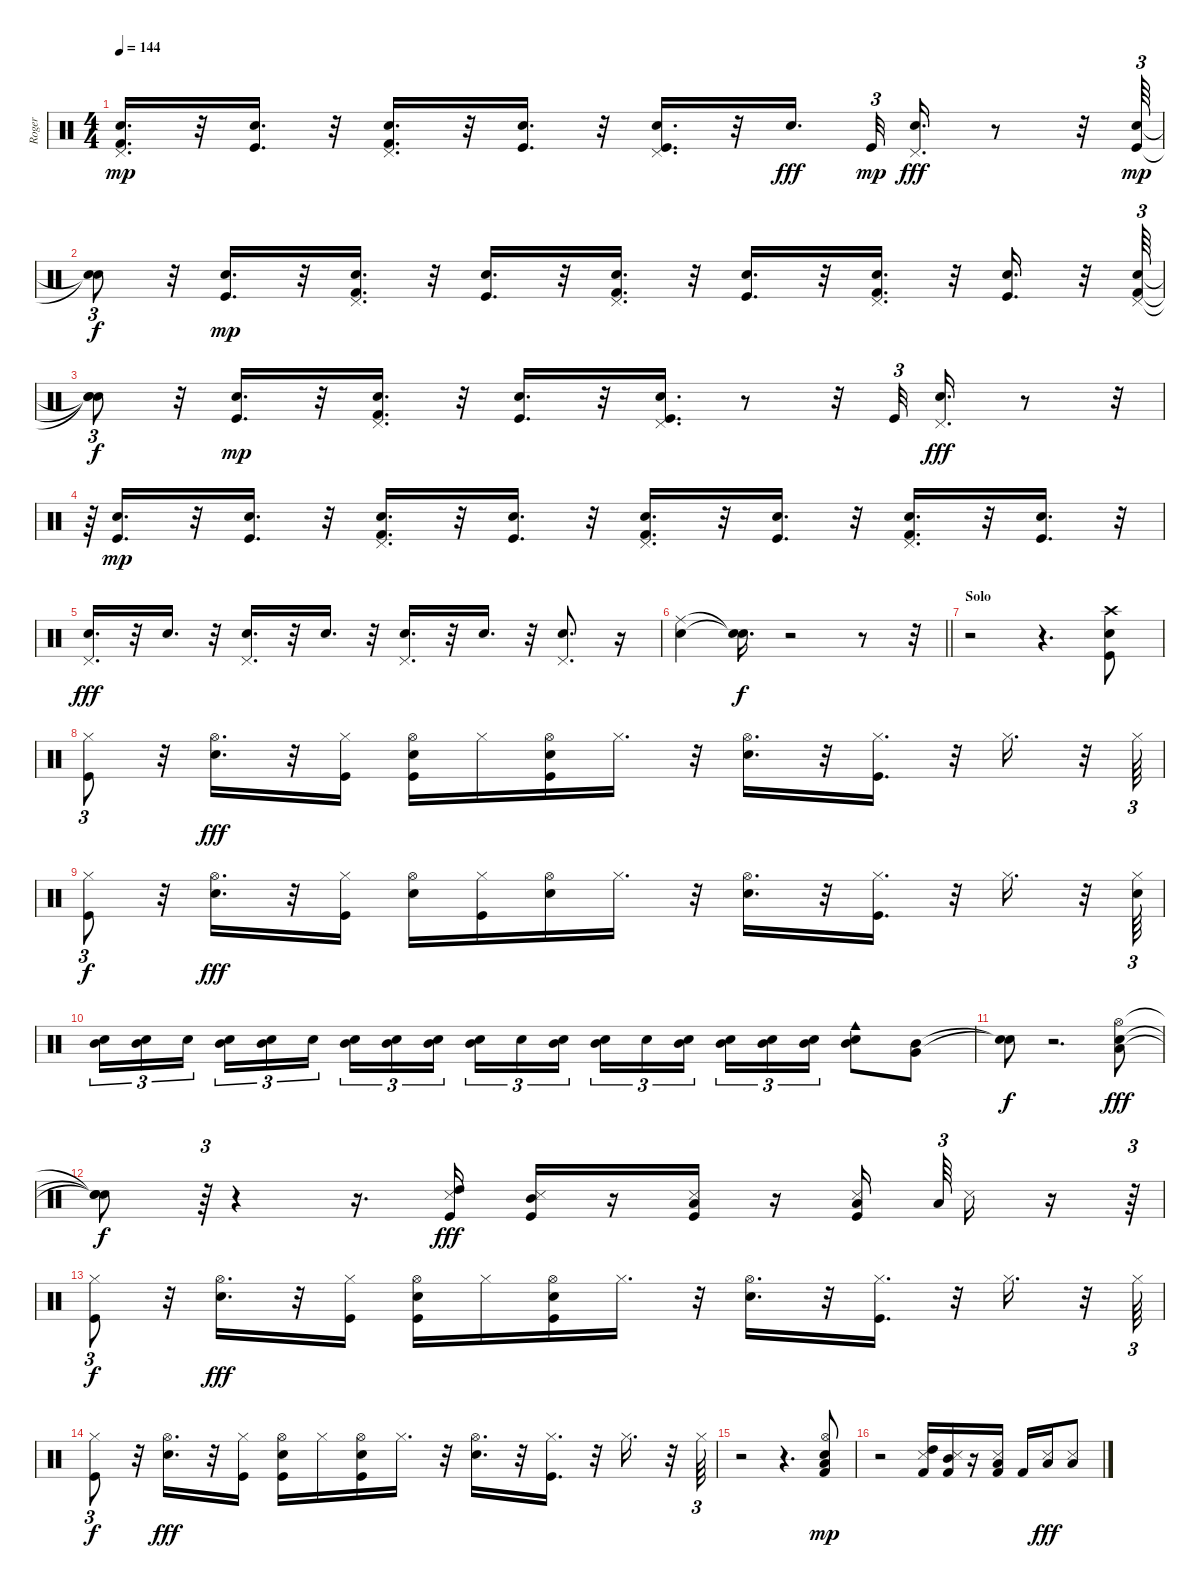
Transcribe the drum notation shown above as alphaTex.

\track ("Roger" "Roger") {instrument percussion}
\staff {score}
\articulation defaults
\ts (4 4)
\tempo 144
\clef neutral
\ks c
("Snare (hit) 2" "Pedal Hi-Hat (hit)" "Kick (hit) 2").16{d dy mp} r.32 ("Electric Snare (hit)" "Kick (hit)").16{d} r.32 ("Snare (hit) 2" "Pedal Hi-Hat (hit)" "Kick (hit) 2").16{d} r.32 ("Electric Snare (hit)" "Kick (hit)").16{d} r.32 ("Snare (hit) 2" "Pedal Hi-Hat (hit)" "Kick (hit)").16{d} r.32 "Electric Snare (hit)".16{d dy fff beam splitsecondary} "Kick (hit)".32{tu (3 2) dy mp} ("Snare (hit) 2" "Pedal Hi-Hat (hit)").16{d dy fff} r.8 r.32 ("Electric Snare (hit)" "Kick (hit)").64{tu (3 2) dy mp} |
("Snare (hit)"{t} "Snare (hit)"{t}).8{tu (3 2) dy f} r.32 ("Electric Snare (hit)" "Kick (hit)").16{d dy mp} r.32 ("Snare (hit) 2" "Pedal Hi-Hat (hit)" "Kick (hit) 2").16{d} r.32 ("Electric Snare (hit)" "Kick (hit)").16{d} r.32 ("Snare (hit) 2" "Pedal Hi-Hat (hit)" "Kick (hit) 2").16{d} r.32 ("Electric Snare (hit)" "Kick (hit)").16{d} r.32 ("Snare (hit) 2" "Pedal Hi-Hat (hit)" "Kick (hit) 2").16{d} r.32 ("Electric Snare (hit)" "Kick (hit)").16{d} r.32 ("Snare (hit) 2" "Pedal Hi-Hat (hit)" "Kick (hit) 2").64{tu (3 2)} |
("Snare (hit)"{t} "Snare (hit)"{t} "Snare (hit)"{t}).8{tu (3 2) dy f} r.32 ("Electric Snare (hit)" "Kick (hit)").16{d dy mp} r.32 ("Snare (hit) 2" "Pedal Hi-Hat (hit)" "Kick (hit) 2").16{d} r.32 ("Electric Snare (hit)" "Kick (hit)").16{d} r.32 ("Snare (hit) 2" "Pedal Hi-Hat (hit)" "Kick (hit)").16{d} r.8 r.32 "Kick (hit)".32{tu (3 2)} ("Snare (hit) 2" "Pedal Hi-Hat (hit)").16{d dy fff} r.8 r.32{tu (3 2)} |
r.64{tu (3 2)} ("Electric Snare (hit)" "Kick (hit)").16{d dy mp} r.32 ("Electric Snare (hit)" "Kick (hit)").16{d} r.32 ("Snare (hit) 2" "Pedal Hi-Hat (hit)" "Kick (hit) 2").16{d} r.32 ("Electric Snare (hit)" "Kick (hit)").16{d} r.32 ("Snare (hit) 2" "Pedal Hi-Hat (hit)" "Kick (hit) 2").16{d} r.32 ("Electric Snare (hit)" "Kick (hit)").16{d} r.32 ("Snare (hit) 2" "Pedal Hi-Hat (hit)" "Kick (hit) 2").16{d} r.32 ("Electric Snare (hit)" "Kick (hit)").16{d} r.32{tu (3 2)} |
("Snare (hit) 2" "Pedal Hi-Hat (hit)").16{d dy fff} r.32 "Electric Snare (hit)".16{d} r.32 ("Snare (hit) 2" "Pedal Hi-Hat (hit)").16{d} r.32 "Electric Snare (hit)".16{d} r.32 ("Pedal Hi-Hat (hit)" "Snare (hit) 2").16{d} r.32 "Electric Snare (hit)".16{d} r.32 ("Snare (hit) 2" "Pedal Hi-Hat (hit)").8{d} r.16 |
\barLineRight lightlight
("Ride (middle)" "Snare (hit) 2").4 ("Snare (hit)"{t} "Snare (hit)"{t}).16{d dy f} r.2 r.8 r.32 |
\section ("" "Solo")
r.2 r.4{d} ("Crash high (hit)" "Electric Snare (hit)" "Kick (hit)").8 |
("Hi-Hat (closed)" "Kick (hit)").8{tu (3 2)} r.32 ("Snare (hit) 2" "Hi-Hat (open)").16{d dy fff} r.32 ("Hi-Hat (closed)" "Kick (hit)").16 ("Snare (hit) 2" "Hi-Hat (open)" "Kick (hit)").16 "Hi-Hat (closed)".16 ("Snare (hit) 2" "Hi-Hat (open)" "Kick (hit)").16 "Hi-Hat (closed)".16{d} r.32 ("Snare (hit) 2" "Hi-Hat (open)").16{d} r.32 ("Hi-Hat (closed)" "Kick (hit)").16{d} r.32 "Hi-Hat (closed)".16{d} r.32 "Hi-Hat (closed)".64{tu (3 2)} |
("Hi-Hat (closed)" "Kick (hit)").8{tu (3 2) dy f} r.32 ("Snare (hit) 2" "Hi-Hat (open)").16{d dy fff} r.32 ("Hi-Hat (closed)" "Kick (hit)").16 ("Snare (hit) 2" "Hi-Hat (open)").16 ("Hi-Hat (closed)" "Kick (hit)").16 ("Snare (hit) 2" "Hi-Hat (open)").16 "Hi-Hat (closed)".16{d} r.32 ("Snare (hit) 2" "Hi-Hat (open)").16{d} r.32 ("Hi-Hat (closed)" "Kick (hit)").16{d} r.32 "Hi-Hat (closed)".16{d} r.32 ("Hi-Hat (closed)" "Snare (hit) 2").64{tu (3 2)} |
("Mid Tom (hit)" "Electric Snare (hit)").16{tu (3 2)} ("Mid Tom (hit)" "Electric Snare (hit)").16{tu (3 2)} "Electric Snare (hit)".16{tu (3 2) beam splitsecondary} ("Mid Tom (hit)" "Electric Snare (hit)").16{tu (3 2)} ("Mid Tom (hit)" "Electric Snare (hit)").16{tu (3 2)} "Electric Snare (hit)".16{tu (3 2)} ("Mid Tom (hit)" "Electric Snare (hit)").16{tu (3 2)} ("Mid Tom (hit)" "Electric Snare (hit)").16{tu (3 2)} ("Mid Tom (hit)" "Electric Snare (hit)").16{tu (3 2) beam splitsecondary} ("Electric Snare (hit)" "Mid Tom (hit)").16{tu (3 2)} "Electric Snare (hit)".16{tu (3 2)} ("Electric Snare (hit)" "Mid Tom (hit)").16{tu (3 2)} ("Electric Snare (hit)" "Mid Tom (hit)").16{tu (3 2)} "Electric Snare (hit)".16{tu (3 2)} ("Electric Snare (hit)" "Mid Tom (hit)").16{tu (3 2) beam splitsecondary} ("Electric Snare (hit)" "Mid Tom (hit)").16{tu (3 2)} ("Electric Snare (hit)" "Mid Tom (hit)").16{tu (3 2)} ("Electric Snare (hit)" "Mid Tom (hit)").16{tu (3 2)} ("Mid Tom (hit)" "Electric Snare (hit)" "Cowbell medium (hit)").8 ("Mid Tom (hit)" "Very Low Tom (hit)").8 |
("Snare (hit)"{t} "Snare (hit)"{t}).8{dy f} r.2{d} ("Hi-Hat (open)" "Electric Snare (hit)" "Low Floor Tom (hit)").8{dy fff} |
("Snare (hit)"{t} "Snare (hit)"{t} "Snare (hit)"{t}).8{dy f} r.64{tu (3 2)} r.4 r.16{d} ("High Tom (hit)" "Snare (side stick) 3" "Kick (hit)").16{dy fff} ("Mid Tom (hit)" "Snare (side stick) 3" "Kick (hit)").16 r.16 ("Low Tom (hit)" "Snare (side stick) 3" "Kick (hit)").16 r.16 ("Low Tom (hit)" "Snare (side stick) 3" "Kick (hit)").16{beam splitsecondary} "Low Tom (hit)".64{tu (3 2)} "Snare (side stick) 3".16 r.16 r.64{tu (3 2)} |
("Hi-Hat (closed)" "Kick (hit)").8{tu (3 2) dy f} r.32 ("Snare (hit) 2" "Hi-Hat (open)").16{d dy fff} r.32 ("Hi-Hat (closed)" "Kick (hit)").16 ("Snare (hit) 2" "Hi-Hat (open)" "Kick (hit)").16 "Hi-Hat (closed)".16 ("Snare (hit) 2" "Hi-Hat (open)" "Kick (hit)").16 "Hi-Hat (closed)".16{d} r.32 ("Snare (hit) 2" "Hi-Hat (open)").16{d} r.32 ("Hi-Hat (closed)" "Kick (hit)").16{d} r.32 "Hi-Hat (closed)".16{d} r.32 "Hi-Hat (closed)".64{tu (3 2)} |
("Hi-Hat (closed)" "Kick (hit)").8{tu (3 2) dy f} r.32 ("Snare (hit) 2" "Hi-Hat (open)").16{d dy fff} r.32 ("Hi-Hat (closed)" "Kick (hit)").16 ("Snare (hit) 2" "Hi-Hat (open)" "Kick (hit)").16 "Hi-Hat (closed)".16 ("Snare (hit) 2" "Hi-Hat (open)" "Kick (hit)").16 "Hi-Hat (closed)".16{d} r.32 ("Snare (hit) 2" "Hi-Hat (open)").16{d} r.32 ("Hi-Hat (closed)" "Kick (hit)").16{d} r.32 "Hi-Hat (closed)".16{d} r.32 "Hi-Hat (closed)".64{tu (3 2)} |
r.2 r.4{d} ("Hi-Hat (open)" "Electric Snare (hit)" "Low Floor Tom (hit)" "Kick (hit) 2").8{dy mp} |
r.2 ("High Tom (hit)" "Snare (side stick) 3" "Kick (hit) 2").16 ("Mid Tom (hit)" "Snare (side stick) 3" "Kick (hit) 2").16 r.16 ("Low Tom (hit)" "Snare (side stick) 3" "Kick (hit) 2").16 "Kick (hit) 2".16 ("Low Tom (hit)" "Snare (side stick) 3").16{dy fff} ("Snare (side stick) 3" "Low Tom (hit)").8
